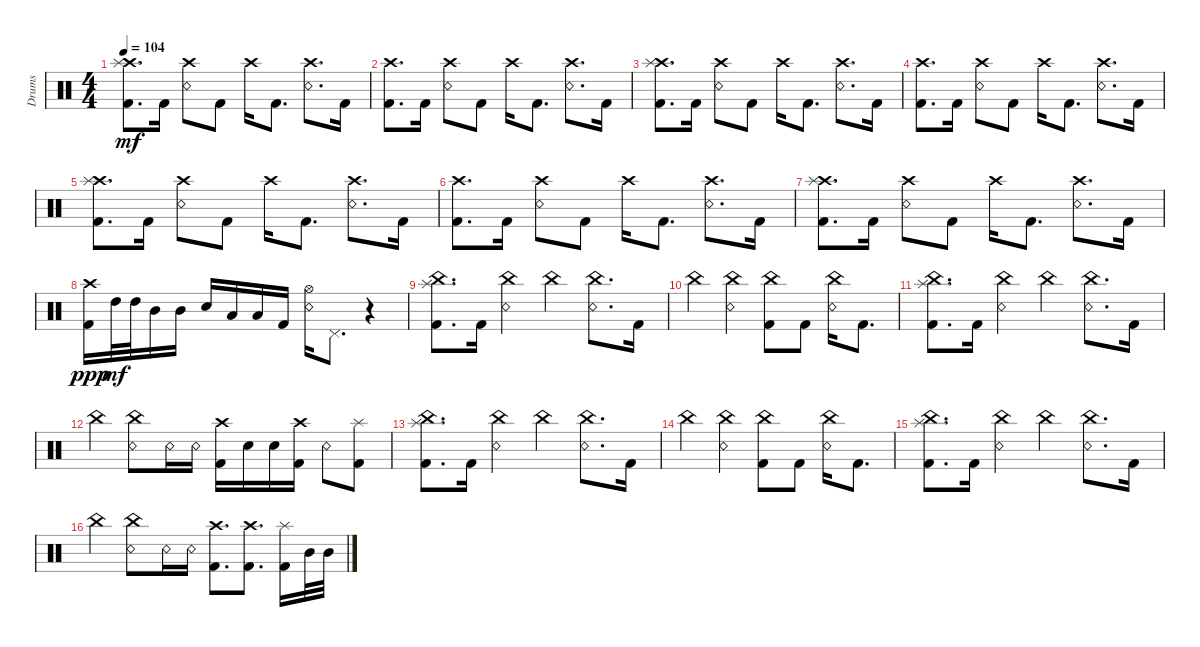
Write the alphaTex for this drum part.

\track ("Drums" "Drums") {instrument percussion}
\staff {score}
\articulation defaults
\ts (4 4)
\tempo 104
\clef neutral
\ks c
("Crash high (hit)" "Splash (hit)" "Kick (hit) 2").8{d dy mf} "Kick (hit) 2".16 ("Crash high (hit)" "Snare (rim shot)").8 "Kick (hit) 2".8 "Crash high (hit)".16 "Kick (hit) 2".8{d} ("Crash high (hit)" "Snare (rim shot)").8{d} "Kick (hit) 2".16 |
("Crash high (hit)" "Kick (hit) 2").8{d} "Kick (hit) 2".16 ("Crash high (hit)" "Snare (rim shot)").8 "Kick (hit) 2".8 "Crash high (hit)".16 "Kick (hit) 2".8{d} ("Crash high (hit)" "Snare (rim shot)").8{d} "Kick (hit) 2".16 |
("Crash high (hit)" "Splash (hit)" "Kick (hit) 2").8{d} "Kick (hit) 2".16 ("Crash high (hit)" "Snare (rim shot)").8 "Kick (hit) 2".8 "Crash high (hit)".16 "Kick (hit) 2".8{d} ("Crash high (hit)" "Snare (rim shot)").8{d} "Kick (hit) 2".16 |
("Crash high (hit)" "Kick (hit) 2").8{d} "Kick (hit) 2".16 ("Crash high (hit)" "Snare (rim shot)").8 "Kick (hit) 2".8 "Crash high (hit)".16 "Kick (hit) 2".8{d} ("Crash high (hit)" "Snare (rim shot)").8{d} "Kick (hit) 2".16 |
("Crash high (hit)" "Splash (hit)" "Kick (hit) 2").8{d} "Kick (hit) 2".16 ("Crash high (hit)" "Snare (rim shot)").8 "Kick (hit) 2".8 "Crash high (hit)".16 "Kick (hit) 2".8{d} ("Crash high (hit)" "Snare (rim shot)").8{d} "Kick (hit) 2".16 |
("Crash high (hit)" "Kick (hit) 2").8{d} "Kick (hit) 2".16 ("Crash high (hit)" "Snare (rim shot)").8 "Kick (hit) 2".8 "Crash high (hit)".16 "Kick (hit) 2".8{d} ("Crash high (hit)" "Snare (rim shot)").8{d} "Kick (hit) 2".16 |
("Crash high (hit)" "Splash (hit)" "Kick (hit) 2").8{d} "Kick (hit) 2".16 ("Crash high (hit)" "Snare (rim shot)").8 "Kick (hit) 2".8 "Crash high (hit)".16 "Kick (hit) 2".8{d} ("Crash high (hit)" "Snare (rim shot)").8{d} "Kick (hit) 2".16 |
("Crash high (hit)" "Kick (hit) 2").16{dy ppp} "High Tom (hit)".32{dy mf} "High Tom (hit)".32 "Mid Tom (hit)".16 "Mid Tom (hit)".16 "Snare (hit) 2".16 "Low Tom (hit)".16 "Low Tom (hit)".16 "Kick (hit) 2".16 ("Hi-Hat (open)" "Snare (rim shot)").16 "Pedal Hi-Hat (hit)".8{d} r.4 |
("China (hit)" "Splash (hit)" "Kick (hit) 2").8{d} "Kick (hit) 2".16 ("China (hit)" "Snare (rim shot)").4 "China (hit)".4 ("China (hit)" "Snare (rim shot)").8{d} "Kick (hit) 2".16 |
"China (hit)".4 ("China (hit)" "Snare (rim shot)").4 ("China (hit)" "Kick (hit) 2").8 "Kick (hit) 2".8 ("China (hit)" "Snare (rim shot)").16 "Kick (hit) 2".8{d} |
("China (hit)" "Splash (hit)" "Kick (hit) 2").8{d} "Kick (hit) 2".16 ("China (hit)" "Snare (rim shot)").4 "China (hit)".4 ("China (hit)" "Snare (rim shot)").8{d} "Kick (hit) 2".16 |
"China (hit)".4 ("China (hit)" "Snare (rim shot)").8 "Snare (rim shot)".16 "Snare (rim shot)".16 ("Crash high (hit)" "Kick (hit) 2").16 "Snare (hit) 2".16 "Snare (hit) 2".16 ("Crash high (hit)" "Kick (hit) 2").16 "Snare (rim shot)".8 ("Splash (hit)" "Kick (hit) 2").8 |
("China (hit)" "Splash (hit)" "Kick (hit) 2").8{d} "Kick (hit) 2".16 ("China (hit)" "Snare (rim shot)").4 "China (hit)".4 ("China (hit)" "Snare (rim shot)").8{d} "Kick (hit) 2".16 |
"China (hit)".4 ("China (hit)" "Snare (rim shot)").4 ("China (hit)" "Kick (hit) 2").8 "Kick (hit) 2".8 ("China (hit)" "Snare (rim shot)").16 "Kick (hit) 2".8{d} |
("China (hit)" "Splash (hit)" "Kick (hit) 2").8{d} "Kick (hit) 2".16 ("China (hit)" "Snare (rim shot)").4 "China (hit)".4 ("China (hit)" "Snare (rim shot)").8{d} "Kick (hit) 2".16 |
"China (hit)".4 ("China (hit)" "Snare (rim shot)").8 "Snare (rim shot)".16 "Snare (rim shot)".16 ("Crash high (hit)" "Kick (hit) 2").8{d} ("Crash high (hit)" "Kick (hit) 2").8{d} ("Splash (hit)" "Kick (hit) 2").16 "Mid Tom (hit)".32 "Mid Tom (hit)".32
